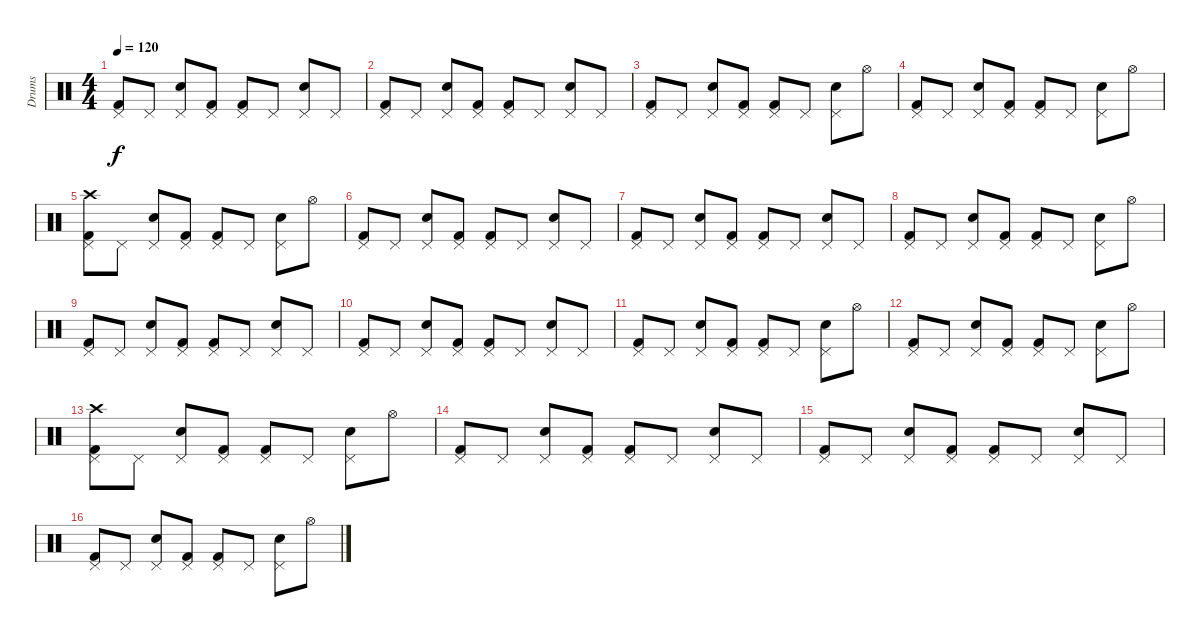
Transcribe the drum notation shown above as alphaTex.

\track ("Drums" "Drums") {instrument percussion}
\staff {score}
\articulation defaults
\ts (4 4)
\tempo 120
\clef neutral
\ks c
("Pedal Hi-Hat (hit)" "Kick (hit) 2").8{dy f} "Pedal Hi-Hat (hit)".8 ("Pedal Hi-Hat (hit)" "Snare (hit) 2").8 ("Pedal Hi-Hat (hit)" "Kick (hit) 2").8 ("Pedal Hi-Hat (hit)" "Kick (hit) 2").8 "Pedal Hi-Hat (hit)".8 ("Pedal Hi-Hat (hit)" "Snare (hit) 2").8 "Pedal Hi-Hat (hit)".8 |
("Pedal Hi-Hat (hit)" "Kick (hit) 2").8 "Pedal Hi-Hat (hit)".8 ("Pedal Hi-Hat (hit)" "Snare (hit) 2").8 ("Pedal Hi-Hat (hit)" "Kick (hit) 2").8 ("Pedal Hi-Hat (hit)" "Kick (hit) 2").8 "Pedal Hi-Hat (hit)".8 ("Pedal Hi-Hat (hit)" "Snare (hit) 2").8 "Pedal Hi-Hat (hit)".8 |
("Pedal Hi-Hat (hit)" "Kick (hit) 2").8 "Pedal Hi-Hat (hit)".8 ("Pedal Hi-Hat (hit)" "Snare (hit) 2").8 ("Pedal Hi-Hat (hit)" "Kick (hit) 2").8 ("Pedal Hi-Hat (hit)" "Kick (hit) 2").8 "Pedal Hi-Hat (hit)".8 ("Pedal Hi-Hat (hit)" "Snare (hit) 2").8 "Hi-Hat (open)".8 |
("Pedal Hi-Hat (hit)" "Kick (hit) 2").8 "Pedal Hi-Hat (hit)".8 ("Pedal Hi-Hat (hit)" "Snare (hit) 2").8 ("Pedal Hi-Hat (hit)" "Kick (hit) 2").8 ("Pedal Hi-Hat (hit)" "Kick (hit) 2").8 "Pedal Hi-Hat (hit)".8 ("Pedal Hi-Hat (hit)" "Snare (hit) 2").8 "Hi-Hat (open)".8 |
("Crash high (hit)" "Pedal Hi-Hat (hit)" "Kick (hit) 2").8 "Pedal Hi-Hat (hit)".8 ("Pedal Hi-Hat (hit)" "Snare (hit) 2").8 ("Pedal Hi-Hat (hit)" "Kick (hit) 2").8 ("Pedal Hi-Hat (hit)" "Kick (hit) 2").8 "Pedal Hi-Hat (hit)".8 ("Pedal Hi-Hat (hit)" "Snare (hit) 2").8 "Hi-Hat (open)".8 |
("Pedal Hi-Hat (hit)" "Kick (hit) 2").8 "Pedal Hi-Hat (hit)".8 ("Pedal Hi-Hat (hit)" "Snare (hit) 2").8 ("Pedal Hi-Hat (hit)" "Kick (hit) 2").8 ("Pedal Hi-Hat (hit)" "Kick (hit) 2").8 "Pedal Hi-Hat (hit)".8 ("Pedal Hi-Hat (hit)" "Snare (hit) 2").8 "Pedal Hi-Hat (hit)".8 |
("Pedal Hi-Hat (hit)" "Kick (hit) 2").8 "Pedal Hi-Hat (hit)".8 ("Pedal Hi-Hat (hit)" "Snare (hit) 2").8 ("Pedal Hi-Hat (hit)" "Kick (hit) 2").8 ("Pedal Hi-Hat (hit)" "Kick (hit) 2").8 "Pedal Hi-Hat (hit)".8 ("Pedal Hi-Hat (hit)" "Snare (hit) 2").8 "Pedal Hi-Hat (hit)".8 |
("Pedal Hi-Hat (hit)" "Kick (hit) 2").8 "Pedal Hi-Hat (hit)".8 ("Pedal Hi-Hat (hit)" "Snare (hit) 2").8 ("Pedal Hi-Hat (hit)" "Kick (hit) 2").8 ("Pedal Hi-Hat (hit)" "Kick (hit) 2").8 "Pedal Hi-Hat (hit)".8 ("Pedal Hi-Hat (hit)" "Snare (hit) 2").8 "Hi-Hat (open)".8 |
("Pedal Hi-Hat (hit)" "Kick (hit) 2").8 "Pedal Hi-Hat (hit)".8 ("Pedal Hi-Hat (hit)" "Snare (hit) 2").8 ("Pedal Hi-Hat (hit)" "Kick (hit) 2").8 ("Pedal Hi-Hat (hit)" "Kick (hit) 2").8 "Pedal Hi-Hat (hit)".8 ("Pedal Hi-Hat (hit)" "Snare (hit) 2").8 "Pedal Hi-Hat (hit)".8 |
("Pedal Hi-Hat (hit)" "Kick (hit) 2").8 "Pedal Hi-Hat (hit)".8 ("Pedal Hi-Hat (hit)" "Snare (hit) 2").8 ("Pedal Hi-Hat (hit)" "Kick (hit) 2").8 ("Pedal Hi-Hat (hit)" "Kick (hit) 2").8 "Pedal Hi-Hat (hit)".8 ("Pedal Hi-Hat (hit)" "Snare (hit) 2").8 "Pedal Hi-Hat (hit)".8 |
("Pedal Hi-Hat (hit)" "Kick (hit) 2").8 "Pedal Hi-Hat (hit)".8 ("Pedal Hi-Hat (hit)" "Snare (hit) 2").8 ("Pedal Hi-Hat (hit)" "Kick (hit) 2").8 ("Pedal Hi-Hat (hit)" "Kick (hit) 2").8 "Pedal Hi-Hat (hit)".8 ("Pedal Hi-Hat (hit)" "Snare (hit) 2").8 "Hi-Hat (open)".8 |
("Pedal Hi-Hat (hit)" "Kick (hit) 2").8 "Pedal Hi-Hat (hit)".8 ("Pedal Hi-Hat (hit)" "Snare (hit) 2").8 ("Pedal Hi-Hat (hit)" "Kick (hit) 2").8 ("Pedal Hi-Hat (hit)" "Kick (hit) 2").8 "Pedal Hi-Hat (hit)".8 ("Pedal Hi-Hat (hit)" "Snare (hit) 2").8 "Hi-Hat (open)".8 |
("Crash high (hit)" "Pedal Hi-Hat (hit)" "Kick (hit) 2").8 "Pedal Hi-Hat (hit)".8 ("Pedal Hi-Hat (hit)" "Snare (hit) 2").8 ("Pedal Hi-Hat (hit)" "Kick (hit) 2").8 ("Pedal Hi-Hat (hit)" "Kick (hit) 2").8 "Pedal Hi-Hat (hit)".8 ("Pedal Hi-Hat (hit)" "Snare (hit) 2").8 "Hi-Hat (open)".8 |
("Pedal Hi-Hat (hit)" "Kick (hit) 2").8 "Pedal Hi-Hat (hit)".8 ("Pedal Hi-Hat (hit)" "Snare (hit) 2").8 ("Pedal Hi-Hat (hit)" "Kick (hit) 2").8 ("Pedal Hi-Hat (hit)" "Kick (hit) 2").8 "Pedal Hi-Hat (hit)".8 ("Pedal Hi-Hat (hit)" "Snare (hit) 2").8 "Pedal Hi-Hat (hit)".8 |
("Pedal Hi-Hat (hit)" "Kick (hit) 2").8 "Pedal Hi-Hat (hit)".8 ("Pedal Hi-Hat (hit)" "Snare (hit) 2").8 ("Pedal Hi-Hat (hit)" "Kick (hit) 2").8 ("Pedal Hi-Hat (hit)" "Kick (hit) 2").8 "Pedal Hi-Hat (hit)".8 ("Pedal Hi-Hat (hit)" "Snare (hit) 2").8 "Pedal Hi-Hat (hit)".8 |
("Pedal Hi-Hat (hit)" "Kick (hit) 2").8 "Pedal Hi-Hat (hit)".8 ("Pedal Hi-Hat (hit)" "Snare (hit) 2").8 ("Pedal Hi-Hat (hit)" "Kick (hit) 2").8 ("Pedal Hi-Hat (hit)" "Kick (hit) 2").8 "Pedal Hi-Hat (hit)".8 ("Pedal Hi-Hat (hit)" "Snare (hit) 2").8 "Hi-Hat (open)".8
